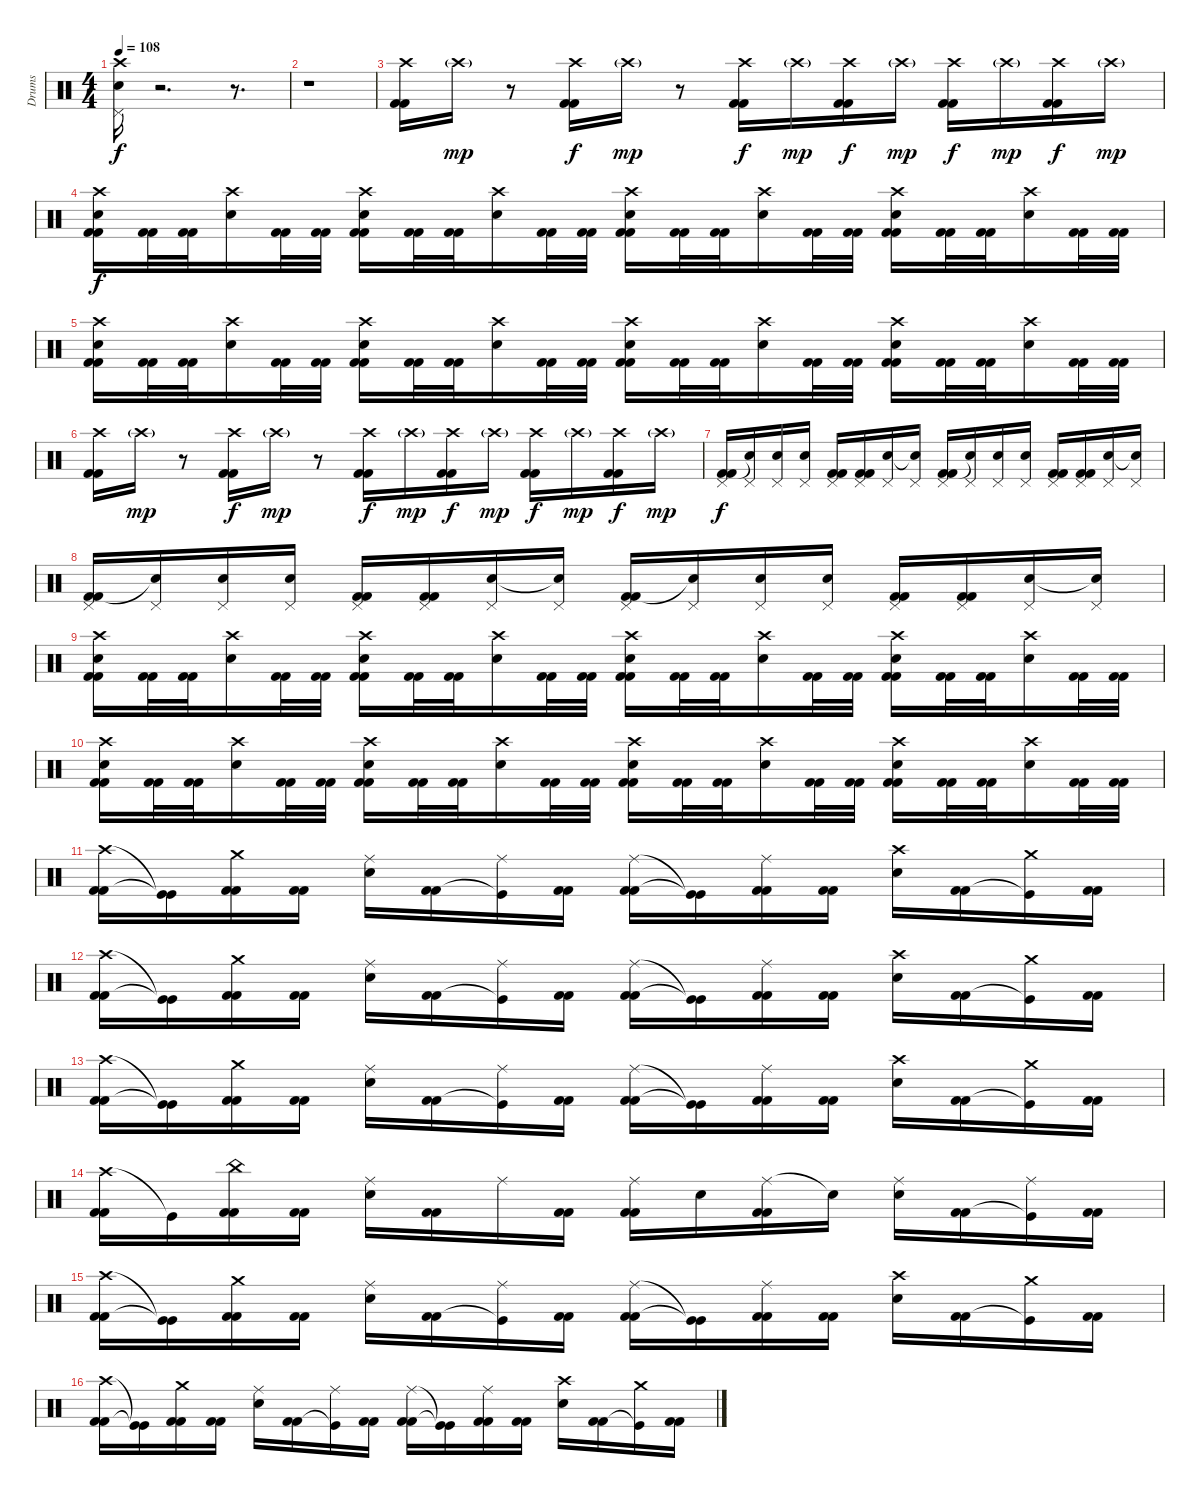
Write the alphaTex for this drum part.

\track ("Drums" "Drums") {instrument percussion}
\staff {score}
\articulation defaults
\ts (4 4)
\tempo 108
\clef neutral
\ks c
("Crash high (hit)" "Pedal Hi-Hat (hit)" "Electric Snare (hit)").16{dy f} r.2{d} r.8{d} |
r.1 |
("Crash high (hit)" "Kick (hit) 2" "Kick (hit) 2").16 "Crash high (hit)"{g}.16{dy mp} r.8 ("Crash high (hit)" "Kick (hit) 2" "Kick (hit) 2").16{dy f} "Crash high (hit)"{g}.16{dy mp} r.8 ("Crash high (hit)" "Kick (hit) 2" "Kick (hit) 2").16{dy f} "Crash high (hit)"{g}.16{dy mp} ("Crash high (hit)" "Kick (hit) 2" "Kick (hit) 2").16{dy f} "Crash high (hit)"{g}.16{dy mp} ("Crash high (hit)" "Kick (hit) 2" "Kick (hit) 2").16{dy f} "Crash high (hit)"{g}.16{dy mp} ("Crash high (hit)" "Kick (hit) 2" "Kick (hit) 2").16{dy f} "Crash high (hit)"{g}.16{dy mp} |
("Crash high (hit)" "Electric Snare (hit)" "Kick (hit) 2" "Kick (hit) 2").16{dy f} ("Kick (hit) 2" "Kick (hit) 2").32 ("Kick (hit) 2" "Kick (hit) 2").32 ("Crash high (hit)" "Electric Snare (hit)").16 ("Kick (hit) 2" "Kick (hit) 2").32 ("Kick (hit) 2" "Kick (hit) 2").32 ("Crash high (hit)" "Electric Snare (hit)" "Kick (hit) 2" "Kick (hit) 2").16 ("Kick (hit) 2" "Kick (hit) 2").32 ("Kick (hit) 2" "Kick (hit) 2").32 ("Crash high (hit)" "Electric Snare (hit)").16 ("Kick (hit) 2" "Kick (hit) 2").32 ("Kick (hit) 2" "Kick (hit) 2").32 ("Crash high (hit)" "Electric Snare (hit)" "Kick (hit) 2" "Kick (hit) 2").16 ("Kick (hit) 2" "Kick (hit) 2").32 ("Kick (hit) 2" "Kick (hit) 2").32 ("Crash high (hit)" "Electric Snare (hit)").16 ("Kick (hit) 2" "Kick (hit) 2").32 ("Kick (hit) 2" "Kick (hit) 2").32 ("Crash high (hit)" "Electric Snare (hit)" "Kick (hit) 2" "Kick (hit) 2").16 ("Kick (hit) 2" "Kick (hit) 2").32 ("Kick (hit) 2" "Kick (hit) 2").32 ("Crash high (hit)" "Electric Snare (hit)").16 ("Kick (hit) 2" "Kick (hit) 2").32 ("Kick (hit) 2" "Kick (hit) 2").32 |
("Crash high (hit)" "Electric Snare (hit)" "Kick (hit) 2" "Kick (hit) 2").16 ("Kick (hit) 2" "Kick (hit) 2").32 ("Kick (hit) 2" "Kick (hit) 2").32 ("Crash high (hit)" "Electric Snare (hit)").16 ("Kick (hit) 2" "Kick (hit) 2").32 ("Kick (hit) 2" "Kick (hit) 2").32 ("Crash high (hit)" "Electric Snare (hit)" "Kick (hit) 2" "Kick (hit) 2").16 ("Kick (hit) 2" "Kick (hit) 2").32 ("Kick (hit) 2" "Kick (hit) 2").32 ("Crash high (hit)" "Electric Snare (hit)").16 ("Kick (hit) 2" "Kick (hit) 2").32 ("Kick (hit) 2" "Kick (hit) 2").32 ("Crash high (hit)" "Electric Snare (hit)" "Kick (hit) 2" "Kick (hit) 2").16 ("Kick (hit) 2" "Kick (hit) 2").32 ("Kick (hit) 2" "Kick (hit) 2").32 ("Crash high (hit)" "Electric Snare (hit)").16 ("Kick (hit) 2" "Kick (hit) 2").32 ("Kick (hit) 2" "Kick (hit) 2").32 ("Crash high (hit)" "Electric Snare (hit)" "Kick (hit) 2" "Kick (hit) 2").16 ("Kick (hit) 2" "Kick (hit) 2").32 ("Kick (hit) 2" "Kick (hit) 2").32 ("Crash high (hit)" "Electric Snare (hit)").16 ("Kick (hit) 2" "Kick (hit) 2").32 ("Kick (hit) 2" "Kick (hit) 2").32 |
("Crash high (hit)" "Kick (hit) 2" "Kick (hit) 2").16 "Crash high (hit)"{g}.16{dy mp} r.8 ("Crash high (hit)" "Kick (hit) 2" "Kick (hit) 2").16{dy f} "Crash high (hit)"{g}.16{dy mp} r.8 ("Crash high (hit)" "Kick (hit) 2" "Kick (hit) 2").16{dy f} "Crash high (hit)"{g}.16{dy mp} ("Crash high (hit)" "Kick (hit) 2" "Kick (hit) 2").16{dy f} "Crash high (hit)"{g}.16{dy mp} ("Crash high (hit)" "Kick (hit) 2" "Kick (hit) 2").16{dy f} "Crash high (hit)"{g}.16{dy mp} ("Crash high (hit)" "Kick (hit) 2" "Kick (hit) 2").16{dy f} "Crash high (hit)"{g}.16{dy mp} |
("Pedal Hi-Hat (hit)" "Kick (hit) 2" "Kick (hit) 2").16{dy f} ("Pedal Hi-Hat (hit)" "Snare (hit) 2"{t}).16 ("Pedal Hi-Hat (hit)" "Electric Snare (hit)").16 ("Pedal Hi-Hat (hit)" "Electric Snare (hit)").16 ("Pedal Hi-Hat (hit)" "Kick (hit) 2" "Kick (hit) 2").16 ("Pedal Hi-Hat (hit)" "Kick (hit) 2" "Kick (hit) 2").16 ("Pedal Hi-Hat (hit)" "Electric Snare (hit)").16 ("Pedal Hi-Hat (hit)" "Snare (hit) 2"{t}).16 ("Pedal Hi-Hat (hit)" "Kick (hit) 2" "Kick (hit) 2").16 ("Pedal Hi-Hat (hit)" "Snare (hit) 2"{t}).16 ("Pedal Hi-Hat (hit)" "Electric Snare (hit)").16 ("Pedal Hi-Hat (hit)" "Electric Snare (hit)").16 ("Pedal Hi-Hat (hit)" "Kick (hit) 2" "Kick (hit) 2").16 ("Pedal Hi-Hat (hit)" "Kick (hit) 2" "Kick (hit) 2").16 ("Pedal Hi-Hat (hit)" "Electric Snare (hit)").16 ("Pedal Hi-Hat (hit)" "Snare (hit)"{t}).16 |
("Pedal Hi-Hat (hit)" "Kick (hit) 2" "Kick (hit) 2").16 ("Pedal Hi-Hat (hit)" "Snare (hit) 2"{t}).16 ("Pedal Hi-Hat (hit)" "Electric Snare (hit)").16 ("Pedal Hi-Hat (hit)" "Electric Snare (hit)").16 ("Pedal Hi-Hat (hit)" "Kick (hit) 2" "Kick (hit) 2").16 ("Pedal Hi-Hat (hit)" "Kick (hit) 2" "Kick (hit) 2").16 ("Pedal Hi-Hat (hit)" "Electric Snare (hit)").16 ("Pedal Hi-Hat (hit)" "Snare (hit) 2"{t}).16 ("Pedal Hi-Hat (hit)" "Kick (hit) 2" "Kick (hit) 2").16 ("Pedal Hi-Hat (hit)" "Snare (hit) 2"{t}).16 ("Pedal Hi-Hat (hit)" "Electric Snare (hit)").16 ("Pedal Hi-Hat (hit)" "Electric Snare (hit)").16 ("Pedal Hi-Hat (hit)" "Kick (hit) 2" "Kick (hit) 2").16 ("Pedal Hi-Hat (hit)" "Kick (hit) 2" "Kick (hit) 2").16 ("Pedal Hi-Hat (hit)" "Electric Snare (hit)").16 ("Pedal Hi-Hat (hit)" "Snare (hit)"{t}).16 |
("Crash high (hit)" "Electric Snare (hit)" "Kick (hit) 2" "Kick (hit) 2").16 ("Kick (hit) 2" "Kick (hit) 2").32 ("Kick (hit) 2" "Kick (hit) 2").32 ("Crash high (hit)" "Electric Snare (hit)").16 ("Kick (hit) 2" "Kick (hit) 2").32 ("Kick (hit) 2" "Kick (hit) 2").32 ("Crash high (hit)" "Electric Snare (hit)" "Kick (hit) 2" "Kick (hit) 2").16 ("Kick (hit) 2" "Kick (hit) 2").32 ("Kick (hit) 2" "Kick (hit) 2").32 ("Crash high (hit)" "Electric Snare (hit)").16 ("Kick (hit) 2" "Kick (hit) 2").32 ("Kick (hit) 2" "Kick (hit) 2").32 ("Crash high (hit)" "Electric Snare (hit)" "Kick (hit) 2" "Kick (hit) 2").16 ("Kick (hit) 2" "Kick (hit) 2").32 ("Kick (hit) 2" "Kick (hit) 2").32 ("Crash high (hit)" "Electric Snare (hit)").16 ("Kick (hit) 2" "Kick (hit) 2").32 ("Kick (hit) 2" "Kick (hit) 2").32 ("Crash high (hit)" "Electric Snare (hit)" "Kick (hit) 2" "Kick (hit) 2").16 ("Kick (hit) 2" "Kick (hit) 2").32 ("Kick (hit) 2" "Kick (hit) 2").32 ("Crash high (hit)" "Electric Snare (hit)").16 ("Kick (hit) 2" "Kick (hit) 2").32 ("Kick (hit) 2" "Kick (hit) 2").32 |
("Crash high (hit)" "Electric Snare (hit)" "Kick (hit) 2" "Kick (hit) 2").16 ("Kick (hit) 2" "Kick (hit) 2").32 ("Kick (hit) 2" "Kick (hit) 2").32 ("Crash high (hit)" "Electric Snare (hit)").16 ("Kick (hit) 2" "Kick (hit) 2").32 ("Kick (hit) 2" "Kick (hit) 2").32 ("Crash high (hit)" "Electric Snare (hit)" "Kick (hit) 2" "Kick (hit) 2").16 ("Kick (hit) 2" "Kick (hit) 2").32 ("Kick (hit) 2" "Kick (hit) 2").32 ("Crash high (hit)" "Electric Snare (hit)").16 ("Kick (hit) 2" "Kick (hit) 2").32 ("Kick (hit) 2" "Kick (hit) 2").32 ("Crash high (hit)" "Electric Snare (hit)" "Kick (hit) 2" "Kick (hit) 2").16 ("Kick (hit) 2" "Kick (hit) 2").32 ("Kick (hit) 2" "Kick (hit) 2").32 ("Crash high (hit)" "Electric Snare (hit)").16 ("Kick (hit) 2" "Kick (hit) 2").32 ("Kick (hit) 2" "Kick (hit) 2").32 ("Crash high (hit)" "Electric Snare (hit)" "Kick (hit) 2" "Kick (hit) 2").16 ("Kick (hit) 2" "Kick (hit) 2").32 ("Kick (hit) 2" "Kick (hit) 2").32 ("Crash high (hit)" "Electric Snare (hit)").16 ("Kick (hit) 2" "Kick (hit) 2").32 ("Kick (hit) 2" "Kick (hit) 2").32 |
("Crash high (hit)" "Kick (hit) 2" "Kick (hit) 2").16 ("Kick (hit)"{t} "Kick (hit)"{t}).16 ("Crash medium (hit)" "Kick (hit) 2" "Kick (hit) 2").16 ("Kick (hit) 2" "Kick (hit) 2").16 ("Ride (middle)" "Electric Snare (hit)").16 ("Kick (hit) 2" "Kick (hit) 2").16 ("Ride (middle)" "Kick (hit)"{t}).16 ("Kick (hit) 2" "Kick (hit) 2").16 ("Ride (middle)" "Kick (hit) 2" "Kick (hit) 2").16 ("Kick (hit)"{t} "Kick (hit)"{t}).16 ("Ride (middle)" "Kick (hit) 2" "Kick (hit) 2").16 ("Kick (hit) 2" "Kick (hit) 2").16 ("Crash high (hit)" "Electric Snare (hit)").16 ("Kick (hit) 2" "Kick (hit) 2").16 ("Crash medium (hit)" "Kick (hit)"{t}).16 ("Kick (hit) 2" "Kick (hit) 2").16 |
("Crash high (hit)" "Kick (hit) 2" "Kick (hit) 2").16 ("Kick (hit)"{t} "Kick (hit)"{t}).16 ("Crash medium (hit)" "Kick (hit) 2" "Kick (hit) 2").16 ("Kick (hit) 2" "Kick (hit) 2").16 ("Ride (middle)" "Electric Snare (hit)").16 ("Kick (hit) 2" "Kick (hit) 2").16 ("Ride (middle)" "Kick (hit)"{t}).16 ("Kick (hit) 2" "Kick (hit) 2").16 ("Ride (middle)" "Kick (hit) 2" "Kick (hit) 2").16 ("Kick (hit)"{t} "Kick (hit)"{t}).16 ("Ride (middle)" "Kick (hit) 2" "Kick (hit) 2").16 ("Kick (hit) 2" "Kick (hit) 2").16 ("Crash high (hit)" "Electric Snare (hit)").16 ("Kick (hit) 2" "Kick (hit) 2").16 ("Crash medium (hit)" "Kick (hit)"{t}).16 ("Kick (hit) 2" "Kick (hit) 2").16 |
("Crash high (hit)" "Kick (hit) 2" "Kick (hit) 2").16 ("Kick (hit)"{t} "Kick (hit)"{t}).16 ("Crash medium (hit)" "Kick (hit) 2" "Kick (hit) 2").16 ("Kick (hit) 2" "Kick (hit) 2").16 ("Ride (middle)" "Electric Snare (hit)").16 ("Kick (hit) 2" "Kick (hit) 2").16 ("Ride (middle)" "Kick (hit)"{t}).16 ("Kick (hit) 2" "Kick (hit) 2").16 ("Ride (middle)" "Kick (hit) 2" "Kick (hit) 2").16 ("Kick (hit)"{t} "Kick (hit)"{t}).16 ("Ride (middle)" "Kick (hit) 2" "Kick (hit) 2").16 ("Kick (hit) 2" "Kick (hit) 2").16 ("Crash high (hit)" "Electric Snare (hit)").16 ("Kick (hit) 2" "Kick (hit) 2").16 ("Crash medium (hit)" "Kick (hit)"{t}).16 ("Kick (hit) 2" "Kick (hit) 2").16 |
("Crash high (hit)" "Kick (hit) 2" "Kick (hit) 2").16 "Kick (hit)"{t}.16 ("China (hit)" "Kick (hit) 2" "Kick (hit) 2").16 ("Kick (hit) 2" "Kick (hit) 2").16 ("Ride (middle)" "Electric Snare (hit)").16 ("Kick (hit) 2" "Kick (hit) 2").16 "Ride (middle)".16 ("Kick (hit) 2" "Kick (hit) 2").16 ("Ride (middle)" "Kick (hit) 2" "Kick (hit) 2").16 "Electric Snare (hit)".16 ("Ride (middle)" "Kick (hit) 2" "Kick (hit) 2").16 "Snare (hit) 2"{t}.16 ("Ride (middle)" "Electric Snare (hit)").16 ("Kick (hit) 2" "Kick (hit) 2").16 ("Ride (middle)" "Kick (hit)"{t}).16 ("Kick (hit) 2" "Kick (hit) 2").16 |
("Crash high (hit)" "Kick (hit) 2" "Kick (hit) 2").16 ("Kick (hit)"{t} "Kick (hit)"{t}).16 ("Crash medium (hit)" "Kick (hit) 2" "Kick (hit) 2").16 ("Kick (hit) 2" "Kick (hit) 2").16 ("Ride (middle)" "Electric Snare (hit)").16 ("Kick (hit) 2" "Kick (hit) 2").16 ("Ride (middle)" "Kick (hit)"{t}).16 ("Kick (hit) 2" "Kick (hit) 2").16 ("Ride (middle)" "Kick (hit) 2" "Kick (hit) 2").16 ("Kick (hit)"{t} "Kick (hit)"{t}).16 ("Ride (middle)" "Kick (hit) 2" "Kick (hit) 2").16 ("Kick (hit) 2" "Kick (hit) 2").16 ("Crash high (hit)" "Electric Snare (hit)").16 ("Kick (hit) 2" "Kick (hit) 2").16 ("Crash medium (hit)" "Kick (hit)"{t}).16 ("Kick (hit) 2" "Kick (hit) 2").16 |
("Crash high (hit)" "Kick (hit) 2" "Kick (hit) 2").16 ("Kick (hit)"{t} "Kick (hit)"{t}).16 ("Crash medium (hit)" "Kick (hit) 2" "Kick (hit) 2").16 ("Kick (hit) 2" "Kick (hit) 2").16 ("Ride (middle)" "Electric Snare (hit)").16 ("Kick (hit) 2" "Kick (hit) 2").16 ("Ride (middle)" "Kick (hit)"{t}).16 ("Kick (hit) 2" "Kick (hit) 2").16 ("Ride (middle)" "Kick (hit) 2" "Kick (hit) 2").16 ("Kick (hit)"{t} "Kick (hit)"{t}).16 ("Ride (middle)" "Kick (hit) 2" "Kick (hit) 2").16 ("Kick (hit) 2" "Kick (hit) 2").16 ("Crash high (hit)" "Electric Snare (hit)").16 ("Kick (hit) 2" "Kick (hit) 2").16 ("Crash medium (hit)" "Kick (hit)"{t}).16 ("Kick (hit) 2" "Kick (hit) 2").16
